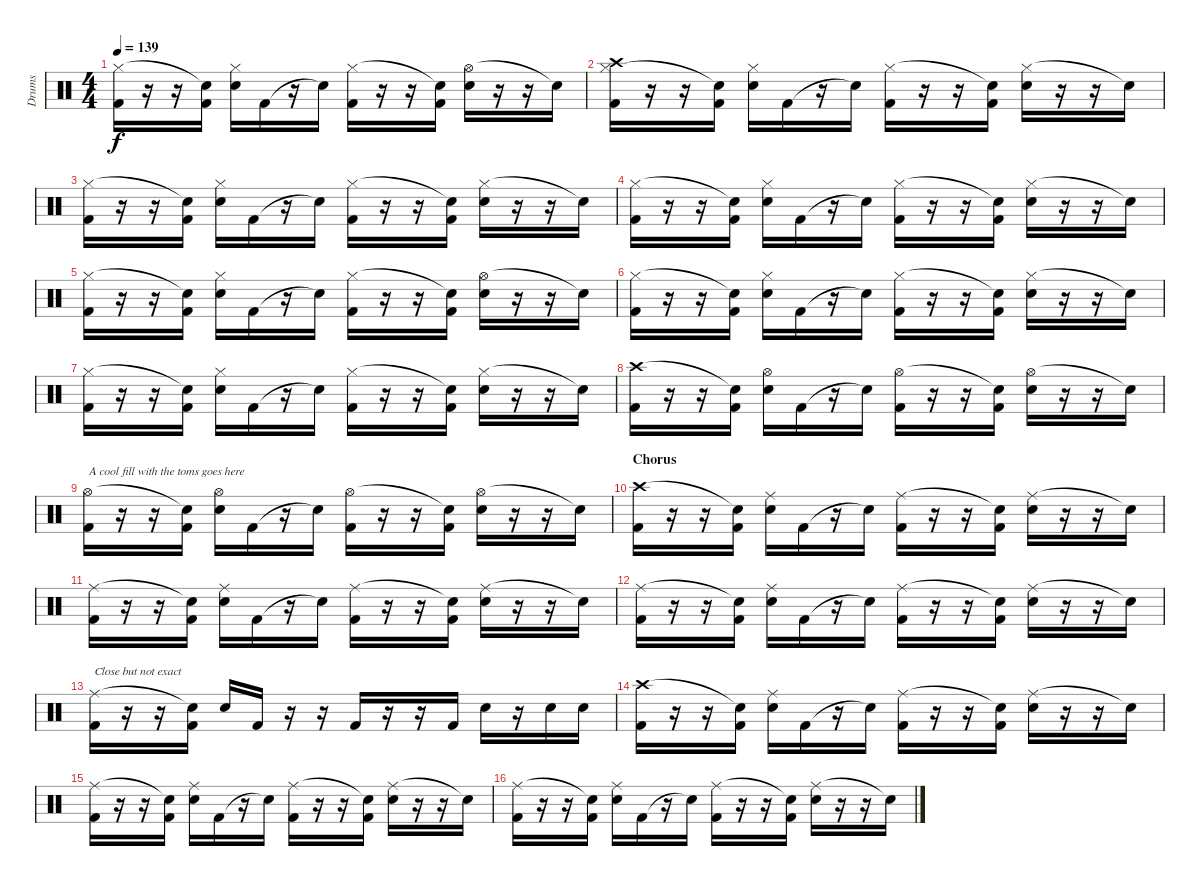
\track ("Drums" "Drums") {instrument percussion}
\staff {score}
\articulation defaults
\ts (4 4)
\tempo 139
\clef neutral
\ks c
("Hi-Hat (closed)" "Kick (hit) 2").16{dy f} r.16 r.16 ("Snare (hit)"{t} "Kick (hit) 2").16 ("Hi-Hat (closed)" "Snare (hit) 2").16 "Kick (hit) 2".16 r.16 "Snare (hit)"{t}.16 ("Hi-Hat (closed)" "Kick (hit) 2").16 r.16 r.16 ("Snare (hit)"{t} "Kick (hit) 2").16 ("Hi-Hat (open)" "Snare (hit) 2").16 r.16 r.16 "Snare (hit)"{t}.16 |
("Hi-Hat (closed)" "Crash high (hit)" "Kick (hit) 2").16 r.16 r.16 ("Snare (hit)"{t} "Kick (hit) 2").16 ("Hi-Hat (closed)" "Snare (hit) 2").16 "Kick (hit) 2".16 r.16 "Snare (hit)"{t}.16 ("Hi-Hat (closed)" "Kick (hit) 2").16 r.16 r.16 ("Snare (hit)"{t} "Kick (hit) 2").16 ("Hi-Hat (closed)" "Snare (hit) 2").16 r.16 r.16 "Snare (hit)"{t}.16 |
("Hi-Hat (closed)" "Kick (hit) 2").16 r.16 r.16 ("Snare (hit)"{t} "Kick (hit) 2").16 ("Hi-Hat (closed)" "Snare (hit) 2").16 "Kick (hit) 2".16 r.16 "Snare (hit)"{t}.16 ("Hi-Hat (closed)" "Kick (hit) 2").16 r.16 r.16 ("Snare (hit)"{t} "Kick (hit) 2").16 ("Hi-Hat (closed)" "Snare (hit) 2").16 r.16 r.16 "Snare (hit)"{t}.16 |
("Hi-Hat (closed)" "Kick (hit) 2").16 r.16 r.16 ("Snare (hit)"{t} "Kick (hit) 2").16 ("Hi-Hat (closed)" "Snare (hit) 2").16 "Kick (hit) 2".16 r.16 "Snare (hit)"{t}.16 ("Hi-Hat (closed)" "Kick (hit) 2").16 r.16 r.16 ("Snare (hit)"{t} "Kick (hit) 2").16 ("Hi-Hat (closed)" "Snare (hit) 2").16 r.16 r.16 "Snare (hit)"{t}.16 |
("Hi-Hat (closed)" "Kick (hit) 2").16 r.16 r.16 ("Snare (hit)"{t} "Kick (hit) 2").16 ("Hi-Hat (closed)" "Snare (hit) 2").16 "Kick (hit) 2".16 r.16 "Snare (hit)"{t}.16 ("Hi-Hat (closed)" "Kick (hit) 2").16 r.16 r.16 ("Snare (hit)"{t} "Kick (hit) 2").16 ("Hi-Hat (open)" "Snare (hit) 2").16 r.16 r.16 "Snare (hit)"{t}.16 |
("Hi-Hat (closed)" "Kick (hit) 2").16 r.16 r.16 ("Snare (hit)"{t} "Kick (hit) 2").16 ("Hi-Hat (closed)" "Snare (hit) 2").16 "Kick (hit) 2".16 r.16 "Snare (hit)"{t}.16 ("Hi-Hat (closed)" "Kick (hit) 2").16 r.16 r.16 ("Snare (hit)"{t} "Kick (hit) 2").16 ("Hi-Hat (closed)" "Snare (hit) 2").16 r.16 r.16 "Snare (hit)"{t}.16 |
("Hi-Hat (closed)" "Kick (hit) 2").16 r.16 r.16 ("Snare (hit)"{t} "Kick (hit) 2").16 ("Hi-Hat (closed)" "Snare (hit) 2").16 "Kick (hit) 2".16 r.16 "Snare (hit)"{t}.16 ("Hi-Hat (closed)" "Kick (hit) 2").16 r.16 r.16 ("Snare (hit)"{t} "Kick (hit) 2").16 ("Hi-Hat (closed)" "Snare (hit) 2").16 r.16 r.16 "Snare (hit)"{t}.16 |
("Crash high (hit)" "Kick (hit) 2").16 r.16 r.16 ("Snare (hit)"{t} "Kick (hit) 2").16 ("Hi-Hat (open)" "Snare (hit) 2").16 "Kick (hit) 2".16 r.16 "Snare (hit)"{t}.16 ("Hi-Hat (open)" "Kick (hit) 2").16 r.16 r.16 ("Snare (hit)"{t} "Kick (hit) 2").16 ("Hi-Hat (open)" "Snare (hit) 2").16 r.16 r.16 "Snare (hit)"{t}.16 |
("Hi-Hat (open)" "Kick (hit) 2").16{txt "A cool fill with the toms goes here"} r.16 r.16 ("Snare (hit)"{t} "Kick (hit) 2").16 ("Hi-Hat (open)" "Snare (hit) 2").16 "Kick (hit) 2".16 r.16 "Snare (hit)"{t}.16 ("Hi-Hat (open)" "Kick (hit) 2").16 r.16 r.16 ("Snare (hit)"{t} "Kick (hit) 2").16 ("Hi-Hat (open)" "Snare (hit) 2").16 r.16 r.16 "Snare (hit)"{t}.16 |
\section ("" "Chorus")
("Crash high (hit)" "Kick (hit) 2").16 r.16 r.16 ("Snare (hit)"{t} "Kick (hit) 2").16 ("Ride (middle)" "Snare (hit) 2").16 "Kick (hit) 2".16 r.16 "Snare (hit)"{t}.16 ("Ride (middle)" "Kick (hit) 2").16 r.16 r.16 ("Snare (hit)"{t} "Kick (hit) 2").16 ("Ride (middle)" "Snare (hit) 2").16 r.16 r.16 "Snare (hit)"{t}.16 |
("Ride (middle)" "Kick (hit) 2").16 r.16 r.16 ("Snare (hit)"{t} "Kick (hit) 2").16 ("Ride (middle)" "Snare (hit) 2").16 "Kick (hit) 2".16 r.16 "Snare (hit)"{t}.16 ("Ride (middle)" "Kick (hit) 2").16 r.16 r.16 ("Snare (hit)"{t} "Kick (hit) 2").16 ("Ride (middle)" "Snare (hit) 2").16 r.16 r.16 "Snare (hit)"{t}.16 |
("Ride (middle)" "Kick (hit) 2").16 r.16 r.16 ("Snare (hit)"{t} "Kick (hit) 2").16 ("Ride (middle)" "Snare (hit) 2").16 "Kick (hit) 2".16 r.16 "Snare (hit)"{t}.16 ("Ride (middle)" "Kick (hit) 2").16 r.16 r.16 ("Snare (hit)"{t} "Kick (hit) 2").16 ("Ride (middle)" "Snare (hit) 2").16 r.16 r.16 "Snare (hit)"{t}.16 |
("Ride (middle)" "Kick (hit) 2").16{txt "Close but not exact"} r.16 r.16 ("Snare (hit)"{t} "Kick (hit) 2").16 "Snare (hit) 2".16 "Kick (hit) 2".16 r.16 r.16 "Kick (hit) 2".16 r.16 r.16 "Kick (hit) 2".16 "Snare (hit) 2".16 r.16 "Snare (hit) 2".16 "Snare (hit) 2".16 |
("Crash high (hit)" "Kick (hit) 2").16 r.16 r.16 ("Snare (hit)"{t} "Kick (hit) 2").16 ("Ride (middle)" "Snare (hit) 2").16 "Kick (hit) 2".16 r.16 "Snare (hit)"{t}.16 ("Ride (middle)" "Kick (hit) 2").16 r.16 r.16 ("Snare (hit)"{t} "Kick (hit) 2").16 ("Ride (middle)" "Snare (hit) 2").16 r.16 r.16 "Snare (hit)"{t}.16 |
("Ride (middle)" "Kick (hit) 2").16 r.16 r.16 ("Snare (hit)"{t} "Kick (hit) 2").16 ("Ride (middle)" "Snare (hit) 2").16 "Kick (hit) 2".16 r.16 "Snare (hit)"{t}.16 ("Ride (middle)" "Kick (hit) 2").16 r.16 r.16 ("Snare (hit)"{t} "Kick (hit) 2").16 ("Ride (middle)" "Snare (hit) 2").16 r.16 r.16 "Snare (hit)"{t}.16 |
("Ride (middle)" "Kick (hit) 2").16 r.16 r.16 ("Snare (hit)"{t} "Kick (hit) 2").16 ("Ride (middle)" "Snare (hit) 2").16 "Kick (hit) 2".16 r.16 "Snare (hit)"{t}.16 ("Ride (middle)" "Kick (hit) 2").16 r.16 r.16 ("Snare (hit)"{t} "Kick (hit) 2").16 ("Ride (middle)" "Snare (hit) 2").16 r.16 r.16 "Snare (hit)"{t}.16
